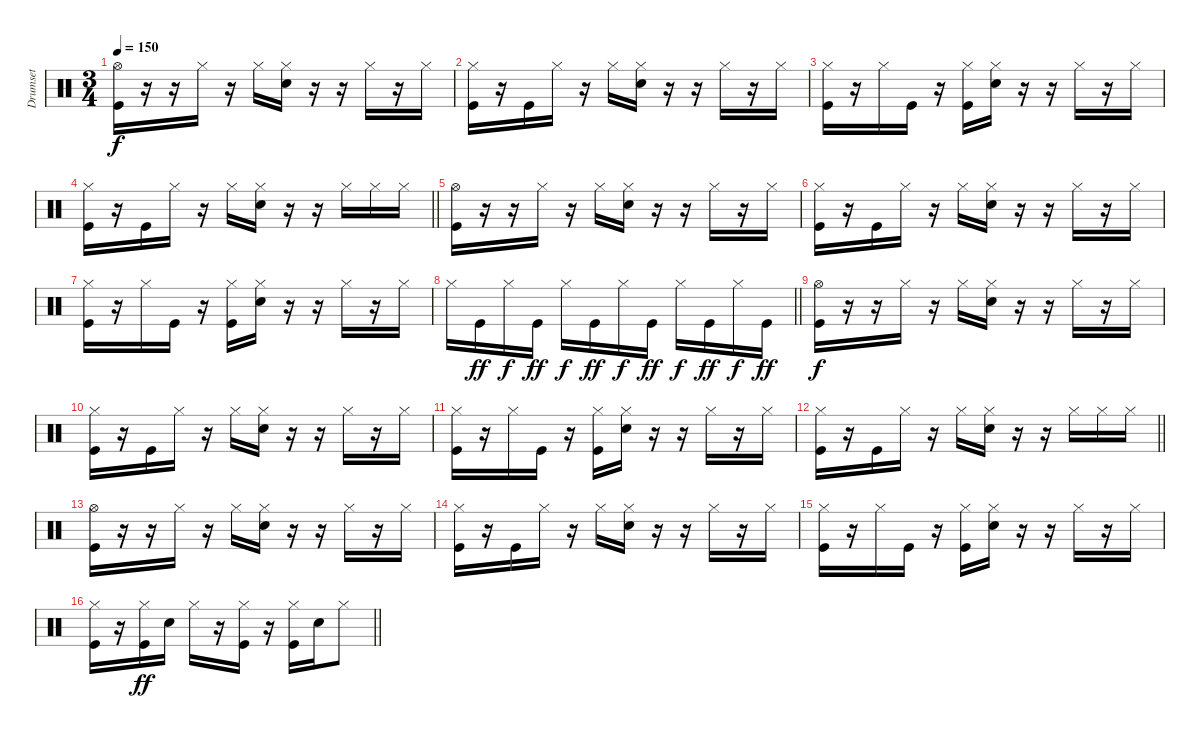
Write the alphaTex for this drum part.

\track ("Drumset" "Drumset") {instrument percussion}
\staff {score}
\articulation defaults
\ts (3 4)
\tempo 150
\clef neutral
\ks c
("Hi-Hat (open)" "Kick (hit)").16{dy f} r.16 r.16 "Hi-Hat (closed)".16 r.16 "Hi-Hat (closed)".16 ("Hi-Hat (closed)" "Snare (hit) 2").16 r.16 r.16 "Hi-Hat (closed)".16 r.16 "Hi-Hat (closed)".16 |
("Hi-Hat (closed)" "Kick (hit)").16 r.16 "Kick (hit)".16 "Hi-Hat (closed)".16 r.16 "Hi-Hat (closed)".16 ("Hi-Hat (closed)" "Snare (hit) 2").16 r.16 r.16 "Hi-Hat (closed)".16 r.16 "Hi-Hat (closed)".16 |
("Hi-Hat (closed)" "Kick (hit)").16 r.16 "Hi-Hat (closed)".16 "Kick (hit)".16 r.16 ("Hi-Hat (closed)" "Kick (hit)").16 ("Hi-Hat (closed)" "Snare (hit) 2").16 r.16 r.16 "Hi-Hat (closed)".16 r.16 "Hi-Hat (closed)".16 |
\barLineRight lightlight
("Hi-Hat (closed)" "Kick (hit)").16 r.16 "Kick (hit)".16 "Hi-Hat (closed)".16 r.16 "Hi-Hat (closed)".16 ("Hi-Hat (closed)" "Snare (hit) 2").16 r.16 r.16 "Hi-Hat (closed)".16 "Hi-Hat (closed)".16 "Hi-Hat (closed)".16 |
("Hi-Hat (open)" "Kick (hit)").16 r.16 r.16 "Hi-Hat (closed)".16 r.16 "Hi-Hat (closed)".16 ("Hi-Hat (closed)" "Snare (hit) 2").16 r.16 r.16 "Hi-Hat (closed)".16 r.16 "Hi-Hat (closed)".16 |
("Hi-Hat (closed)" "Kick (hit)").16 r.16 "Kick (hit)".16 "Hi-Hat (closed)".16 r.16 "Hi-Hat (closed)".16 ("Hi-Hat (closed)" "Snare (hit) 2").16 r.16 r.16 "Hi-Hat (closed)".16 r.16 "Hi-Hat (closed)".16 |
("Hi-Hat (closed)" "Kick (hit)").16 r.16 "Hi-Hat (closed)".16 "Kick (hit)".16 r.16 ("Hi-Hat (closed)" "Kick (hit)").16 ("Hi-Hat (closed)" "Snare (hit) 2").16 r.16 r.16 "Hi-Hat (closed)".16 r.16 "Hi-Hat (closed)".16 |
\barLineRight lightlight "Hi-Hat (closed)".16 "Kick (hit)".16{dy ff} "Hi-Hat (closed)".16{dy f} "Kick (hit)".16{dy ff} "Hi-Hat (closed)".16{dy f} "Kick (hit)".16{dy ff} "Hi-Hat (closed)".16{dy f} "Kick (hit)".16{dy ff} "Hi-Hat (closed)".16{dy f} "Kick (hit)".16{dy ff} "Hi-Hat (closed)".16{dy f} "Kick (hit)".16{dy ff}
|
("Hi-Hat (open)" "Kick (hit)").16{dy f} r.16 r.16 "Hi-Hat (closed)".16 r.16 "Hi-Hat (closed)".16 ("Hi-Hat (closed)" "Snare (hit) 2").16 r.16 r.16 "Hi-Hat (closed)".16 r.16 "Hi-Hat (closed)".16 |
("Hi-Hat (closed)" "Kick (hit)").16 r.16 "Kick (hit)".16 "Hi-Hat (closed)".16 r.16 "Hi-Hat (closed)".16 ("Hi-Hat (closed)" "Snare (hit) 2").16 r.16 r.16 "Hi-Hat (closed)".16 r.16 "Hi-Hat (closed)".16 |
("Hi-Hat (closed)" "Kick (hit)").16 r.16 "Hi-Hat (closed)".16 "Kick (hit)".16 r.16 ("Hi-Hat (closed)" "Kick (hit)").16 ("Hi-Hat (closed)" "Snare (hit) 2").16 r.16 r.16 "Hi-Hat (closed)".16 r.16 "Hi-Hat (closed)".16 |
\barLineRight lightlight
("Hi-Hat (closed)" "Kick (hit)").16 r.16 "Kick (hit)".16 "Hi-Hat (closed)".16 r.16 "Hi-Hat (closed)".16 ("Hi-Hat (closed)" "Snare (hit) 2").16 r.16 r.16 "Hi-Hat (closed)".16 "Hi-Hat (closed)".16 "Hi-Hat (closed)".16 |
("Hi-Hat (open)" "Kick (hit)").16 r.16 r.16 "Hi-Hat (closed)".16 r.16 "Hi-Hat (closed)".16 ("Hi-Hat (closed)" "Snare (hit) 2").16 r.16 r.16 "Hi-Hat (closed)".16 r.16 "Hi-Hat (closed)".16 |
("Hi-Hat (closed)" "Kick (hit)").16 r.16 "Kick (hit)".16 "Hi-Hat (closed)".16 r.16 "Hi-Hat (closed)".16 ("Hi-Hat (closed)" "Snare (hit) 2").16 r.16 r.16 "Hi-Hat (closed)".16 r.16 "Hi-Hat (closed)".16 |
("Hi-Hat (closed)" "Kick (hit)").16 r.16 "Hi-Hat (closed)".16 "Kick (hit)".16 r.16 ("Hi-Hat (closed)" "Kick (hit)").16 ("Hi-Hat (closed)" "Snare (hit) 2").16 r.16 r.16 "Hi-Hat (closed)".16 r.16 "Hi-Hat (closed)".16 |
\barLineRight lightlight
("Hi-Hat (closed)" "Kick (hit)").16 r.16 ("Hi-Hat (closed)" "Kick (hit)").16{dy ff} "Snare (hit) 2".16 "Hi-Hat (closed)".16 r.16 ("Hi-Hat (closed)" "Kick (hit)").16 r.16 ("Hi-Hat (closed)" "Kick (hit)").16 "Snare (hit) 2".16 "Hi-Hat (closed)".8
